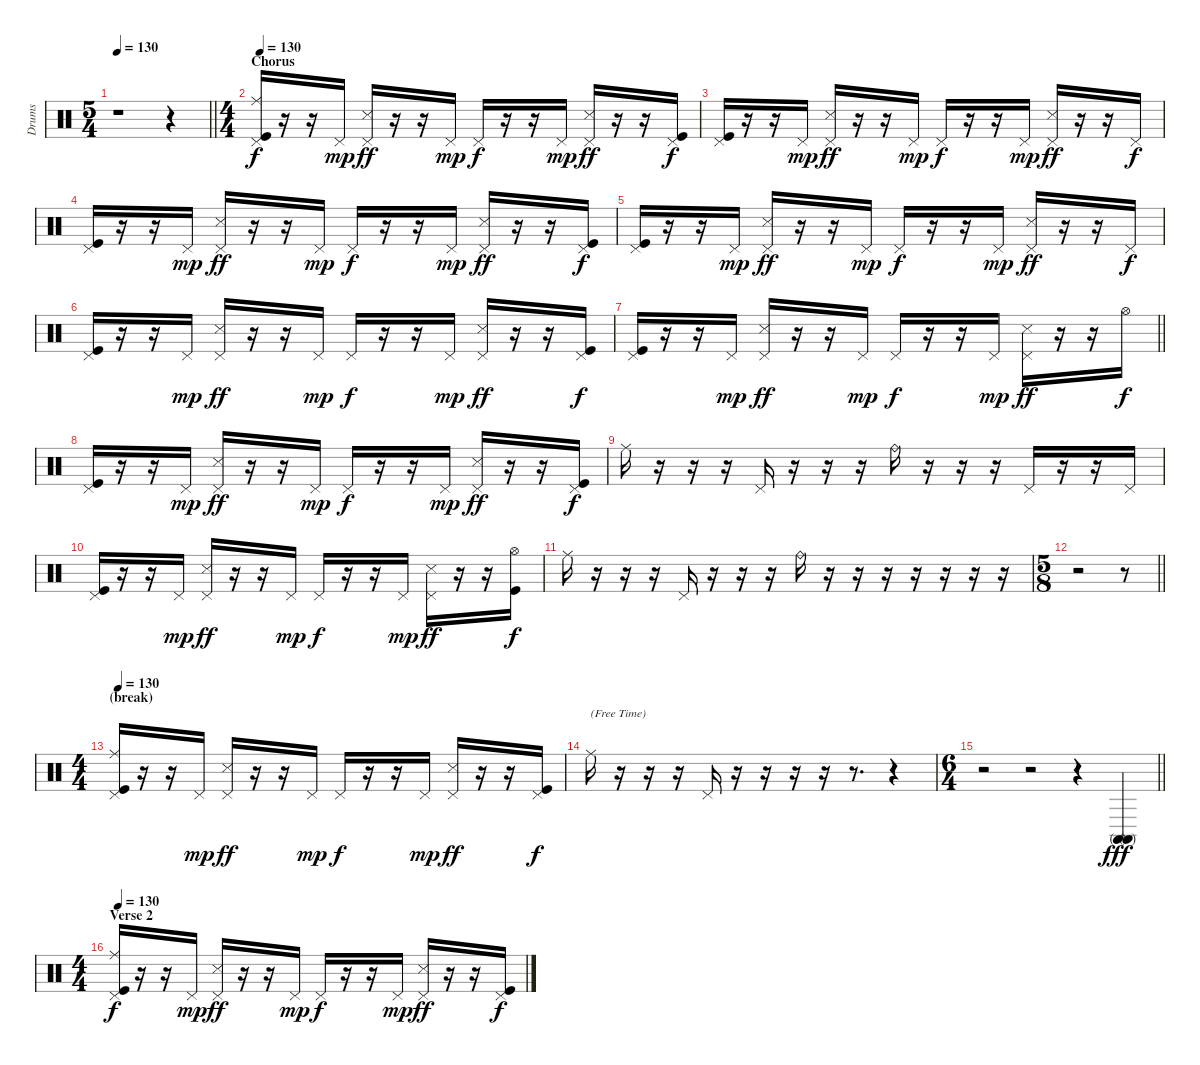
\track ("Drums" "Drums") {instrument percussion}
\staff {score}
\articulation defaults
\ts (5 4)
\tempo 130
\clef neutral
\barLineRight lightlight
\ks c
r.1{dy f} r.4 |
\ts (4 4)
\section ("" "Chorus")
\tempo 130
("Pedal Hi-Hat (hit)" "Ride (middle)" "Kick (hit)").16 r.16 r.16 "Pedal Hi-Hat (hit)".16{dy mp} ("Pedal Hi-Hat (hit)" "Snare (side stick) 3").16{dy ff} r.16 r.16 "Pedal Hi-Hat (hit)".16{dy mp} "Pedal Hi-Hat (hit)".16{dy f} r.16 r.16 "Pedal Hi-Hat (hit)".16{dy mp} ("Pedal Hi-Hat (hit)" "Snare (side stick) 3").16{dy ff} r.16 r.16 ("Pedal Hi-Hat (hit)" "Kick (hit)").16{dy f} |
("Pedal Hi-Hat (hit)" "Kick (hit)").16 r.16 r.16 "Pedal Hi-Hat (hit)".16{dy mp} ("Pedal Hi-Hat (hit)" "Snare (side stick) 3").16{dy ff} r.16 r.16 "Pedal Hi-Hat (hit)".16{dy mp} "Pedal Hi-Hat (hit)".16{dy f} r.16 r.16 "Pedal Hi-Hat (hit)".16{dy mp} ("Pedal Hi-Hat (hit)" "Snare (side stick) 3").16{dy ff} r.16 r.16 "Pedal Hi-Hat (hit)".16{dy f} |
("Pedal Hi-Hat (hit)" "Kick (hit)").16 r.16 r.16 "Pedal Hi-Hat (hit)".16{dy mp} ("Pedal Hi-Hat (hit)" "Snare (side stick) 3").16{dy ff} r.16 r.16 "Pedal Hi-Hat (hit)".16{dy mp} "Pedal Hi-Hat (hit)".16{dy f} r.16 r.16 "Pedal Hi-Hat (hit)".16{dy mp} ("Pedal Hi-Hat (hit)" "Snare (side stick) 3").16{dy ff} r.16 r.16 ("Pedal Hi-Hat (hit)" "Kick (hit)").16{dy f} |
("Pedal Hi-Hat (hit)" "Kick (hit)").16 r.16 r.16 "Pedal Hi-Hat (hit)".16{dy mp} ("Pedal Hi-Hat (hit)" "Snare (side stick) 3").16{dy ff} r.16 r.16 "Pedal Hi-Hat (hit)".16{dy mp} "Pedal Hi-Hat (hit)".16{dy f} r.16 r.16 "Pedal Hi-Hat (hit)".16{dy mp} ("Pedal Hi-Hat (hit)" "Snare (side stick) 3").16{dy ff} r.16 r.16 "Pedal Hi-Hat (hit)".16{dy f} |
("Pedal Hi-Hat (hit)" "Kick (hit)").16 r.16 r.16 "Pedal Hi-Hat (hit)".16{dy mp} ("Pedal Hi-Hat (hit)" "Snare (side stick) 3").16{dy ff} r.16 r.16 "Pedal Hi-Hat (hit)".16{dy mp} "Pedal Hi-Hat (hit)".16{dy f} r.16 r.16 "Pedal Hi-Hat (hit)".16{dy mp} ("Pedal Hi-Hat (hit)" "Snare (side stick) 3").16{dy ff} r.16 r.16 ("Pedal Hi-Hat (hit)" "Kick (hit)").16{dy f} |
\barLineRight lightlight
("Pedal Hi-Hat (hit)" "Kick (hit)").16 r.16 r.16 "Pedal Hi-Hat (hit)".16{dy mp} ("Pedal Hi-Hat (hit)" "Snare (side stick) 3").16{dy ff} r.16 r.16 "Pedal Hi-Hat (hit)".16{dy mp} "Pedal Hi-Hat (hit)".16{dy f} r.16 r.16 "Pedal Hi-Hat (hit)".16{dy mp} ("Pedal Hi-Hat (hit)" "Snare (side stick) 3").16{dy ff} r.16 r.16 "Hi-Hat (open)".16{dy f} |
("Pedal Hi-Hat (hit)" "Kick (hit)").16 r.16 r.16 "Pedal Hi-Hat (hit)".16{dy mp} ("Pedal Hi-Hat (hit)" "Snare (side stick) 3").16{dy ff} r.16 r.16 "Pedal Hi-Hat (hit)".16{dy mp} "Pedal Hi-Hat (hit)".16{dy f} r.16 r.16 "Pedal Hi-Hat (hit)".16{dy mp} ("Pedal Hi-Hat (hit)" "Snare (side stick) 3").16{dy ff} r.16 r.16 ("Pedal Hi-Hat (hit)" "Kick (hit)").16{dy f} |
"Ride (middle)".16 r.16 r.16 r.16 "Pedal Hi-Hat (hit)".16 r.16 r.16 r.16 "Ride (bell)".16 r.16 r.16 r.16 "Pedal Hi-Hat (hit)".16 r.16 r.16 "Pedal Hi-Hat (hit)".16 |
("Pedal Hi-Hat (hit)" "Kick (hit)").16 r.16 r.16 "Pedal Hi-Hat (hit)".16{dy mp} ("Pedal Hi-Hat (hit)" "Snare (side stick) 3").16{dy ff} r.16 r.16 "Pedal Hi-Hat (hit)".16{dy mp} "Pedal Hi-Hat (hit)".16{dy f} r.16 r.16 "Pedal Hi-Hat (hit)".16{dy mp} ("Pedal Hi-Hat (hit)" "Snare (side stick) 3").16{dy ff} r.16 r.16 ("Hi-Hat (open)" "Kick (hit)").16{dy f} |
"Ride (middle)".16 r.16 r.16 r.16 "Pedal Hi-Hat (hit)".16 r.16 r.16 r.16 "Ride (bell)".16 r.16 r.16 r.16 r.16 r.16 r.16 r.16 |
\ts (5 8)
\barLineRight lightlight
r.2 r.8 |
\ts (4 4)
\section ("" "(break)")
\tempo 130
("Pedal Hi-Hat (hit)" "Ride (middle)" "Kick (hit)").16 r.16 r.16 "Pedal Hi-Hat (hit)".16{dy mp} ("Pedal Hi-Hat (hit)" "Snare (side stick) 3").16{dy ff} r.16 r.16 "Pedal Hi-Hat (hit)".16{dy mp} "Pedal Hi-Hat (hit)".16{dy f} r.16 r.16 "Pedal Hi-Hat (hit)".16{dy mp} ("Pedal Hi-Hat (hit)" "Snare (side stick) 3").16{dy ff} r.16 r.16 ("Pedal Hi-Hat (hit)" "Kick (hit)").16{dy f} |
"Ride (middle)".16{txt "(Free Time)"} r.16 r.16 r.16 "Pedal Hi-Hat (hit)".16 r.16 r.16 r.16 r.16 r.8{d} r.4 |
\ts (6 4)
\barLineRight lightlight
r.2 r.2 r.4 ("Conga high (mute)" "Conga high (mute)").4{dy fff} |
\ts (4 4)
\section ("" "Verse 2")
\tempo 130
("Pedal Hi-Hat (hit)" "Ride (middle)" "Kick (hit)").16{dy f} r.16 r.16 "Pedal Hi-Hat (hit)".16{dy mp} ("Pedal Hi-Hat (hit)" "Snare (side stick) 3").16{dy ff} r.16 r.16 "Pedal Hi-Hat (hit)".16{dy mp} "Pedal Hi-Hat (hit)".16{dy f} r.16 r.16 "Pedal Hi-Hat (hit)".16{dy mp} ("Pedal Hi-Hat (hit)" "Snare (side stick) 3").16{dy ff} r.16 r.16 ("Pedal Hi-Hat (hit)" "Kick (hit)").16{dy f}
